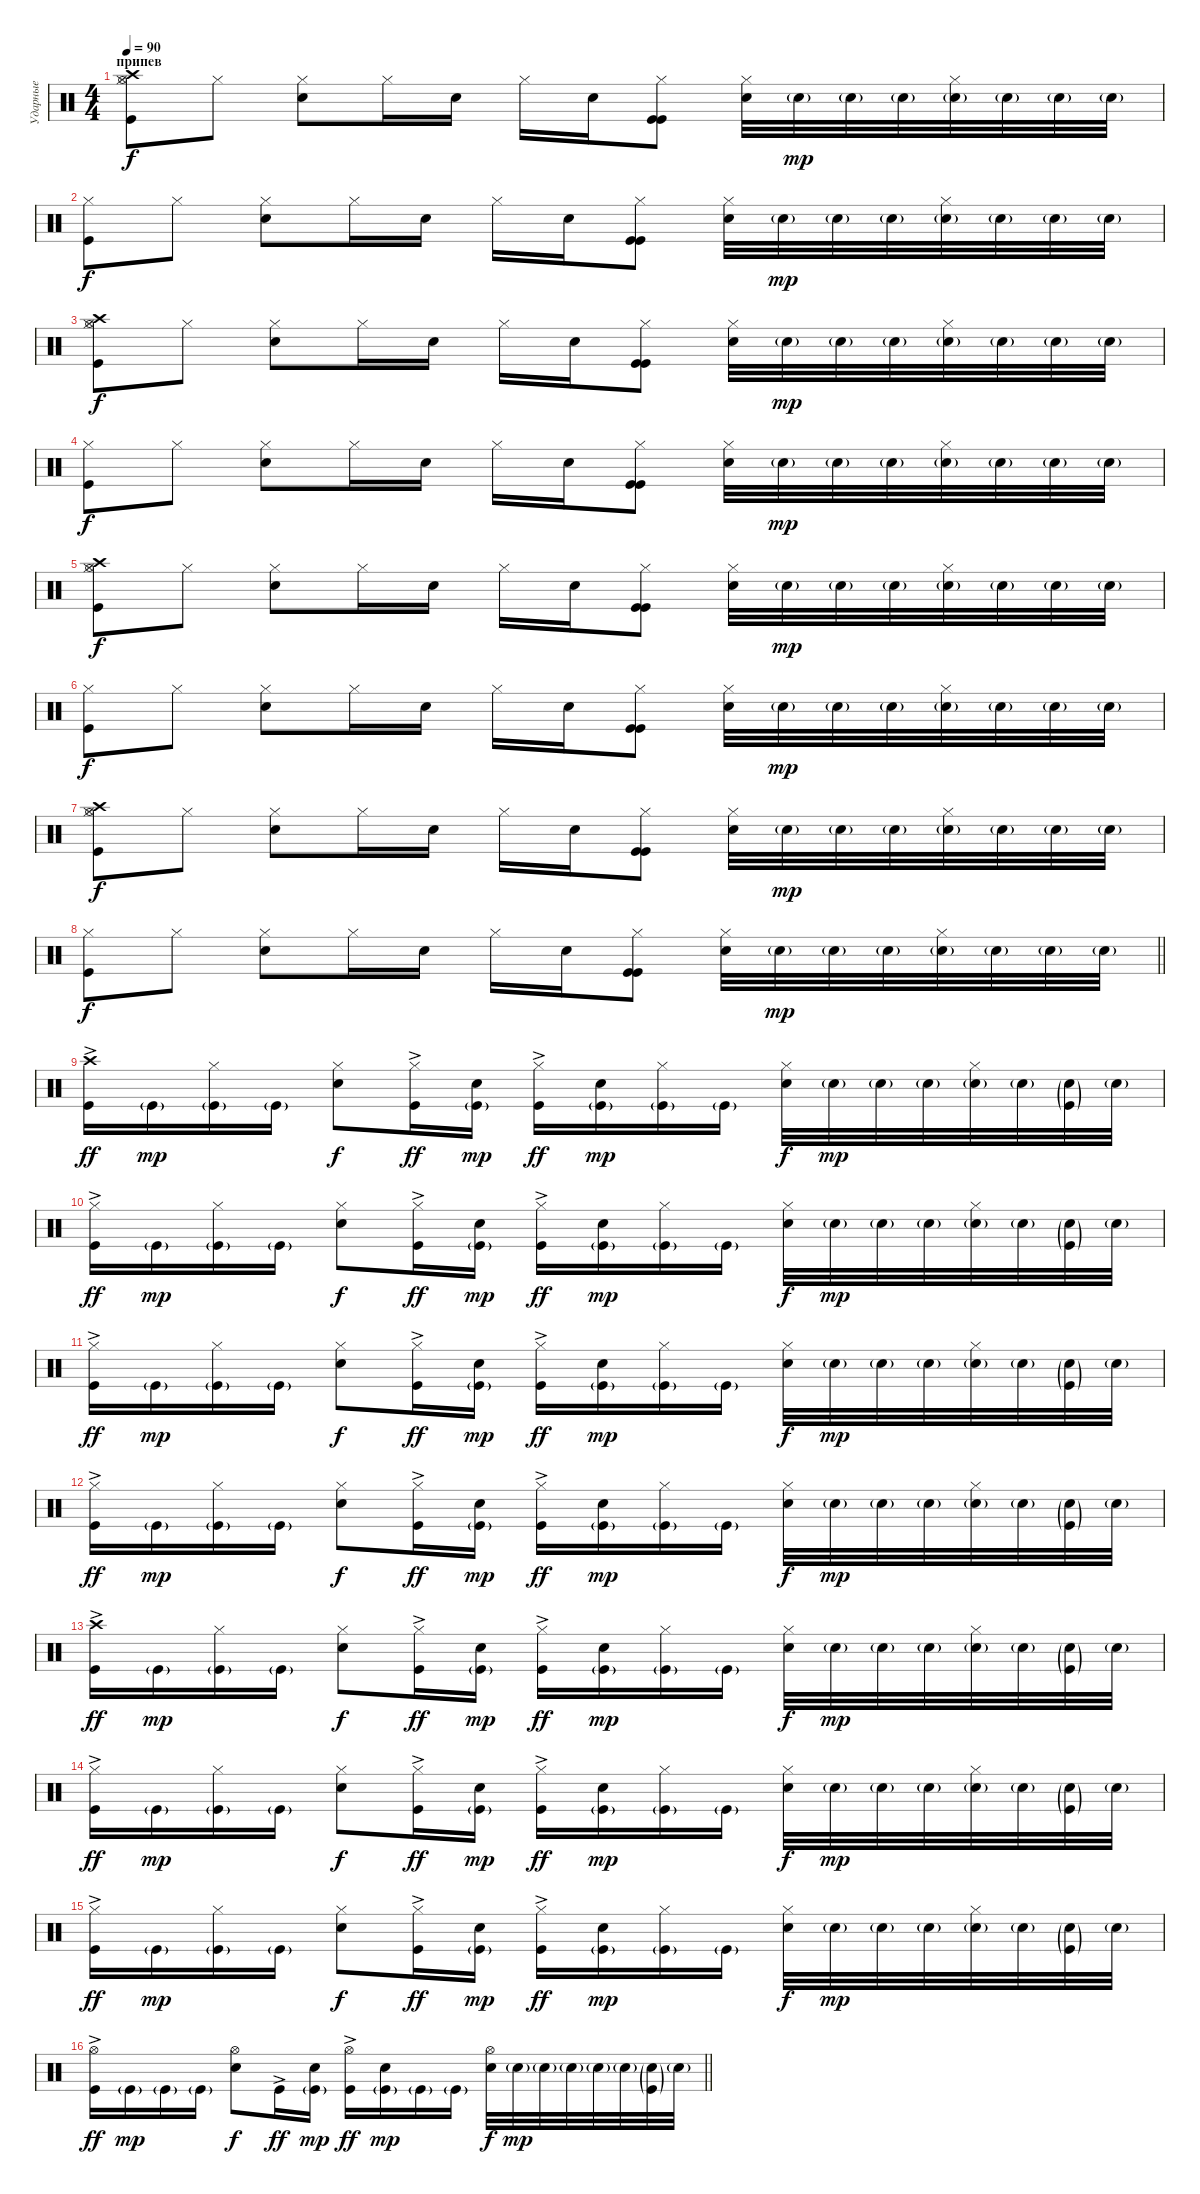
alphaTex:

\track ("Ударные" "Ударные") {instrument percussion}
\staff {score}
\articulation defaults
\ts (4 4)
\section ("" "припев")
\tempo 90
\clef neutral
\ks c
("Hi-Hat (closed)" "Kick (hit)" "Hi-Hat (open)" "Crash high (hit)").8{dy f volume 16} "Hi-Hat (closed)".8 ("Hi-Hat (closed)" "Electric Snare (hit)").8 "Hi-Hat (closed)".16 "Electric Snare (hit)".16 "Hi-Hat (closed)".16 "Electric Snare (hit)".16 ("Hi-Hat (closed)" "Kick (hit)" "Kick (hit)").8 ("Hi-Hat (closed)" "Electric Snare (hit)").32 "Snare (hit) 2"{g}.32{dy mp} "Snare (hit) 2"{g}.32 "Snare (hit) 2"{g}.32 ("Snare (hit) 2"{g} "Hi-Hat (closed)").32 "Snare (hit) 2"{g}.32 "Snare (hit) 2"{g}.32 "Snare (hit) 2"{g}.32 |
("Hi-Hat (closed)" "Kick (hit)").8{dy f} "Hi-Hat (closed)".8 ("Hi-Hat (closed)" "Electric Snare (hit)").8 "Hi-Hat (closed)".16 "Electric Snare (hit)".16 "Hi-Hat (closed)".16 "Electric Snare (hit)".16 ("Hi-Hat (closed)" "Kick (hit)" "Kick (hit)").8 ("Hi-Hat (closed)" "Electric Snare (hit)").32 "Snare (hit) 2"{g}.32{dy mp} "Snare (hit) 2"{g}.32 "Snare (hit) 2"{g}.32 ("Snare (hit) 2"{g} "Hi-Hat (closed)").32 "Snare (hit) 2"{g}.32 "Snare (hit) 2"{g}.32 "Snare (hit) 2"{g}.32 |
("Hi-Hat (closed)" "Kick (hit)" "Hi-Hat (open)" "Crash high (hit)").8{dy f} "Hi-Hat (closed)".8 ("Hi-Hat (closed)" "Electric Snare (hit)").8 "Hi-Hat (closed)".16 "Electric Snare (hit)".16 "Hi-Hat (closed)".16 "Electric Snare (hit)".16 ("Hi-Hat (closed)" "Kick (hit)" "Kick (hit)").8 ("Hi-Hat (closed)" "Electric Snare (hit)").32 "Snare (hit) 2"{g}.32{dy mp} "Snare (hit) 2"{g}.32 "Snare (hit) 2"{g}.32 ("Snare (hit) 2"{g} "Hi-Hat (closed)").32 "Snare (hit) 2"{g}.32 "Snare (hit) 2"{g}.32 "Snare (hit) 2"{g}.32 |
("Hi-Hat (closed)" "Kick (hit)").8{dy f} "Hi-Hat (closed)".8 ("Hi-Hat (closed)" "Electric Snare (hit)").8 "Hi-Hat (closed)".16 "Electric Snare (hit)".16 "Hi-Hat (closed)".16 "Electric Snare (hit)".16 ("Hi-Hat (closed)" "Kick (hit)" "Kick (hit)").8 ("Hi-Hat (closed)" "Electric Snare (hit)").32 "Snare (hit) 2"{g}.32{dy mp} "Snare (hit) 2"{g}.32 "Snare (hit) 2"{g}.32 ("Snare (hit) 2"{g} "Hi-Hat (closed)").32 "Snare (hit) 2"{g}.32 "Snare (hit) 2"{g}.32 "Snare (hit) 2"{g}.32 |
("Hi-Hat (closed)" "Kick (hit)" "Hi-Hat (open)" "Crash high (hit)").8{dy f volume 16} "Hi-Hat (closed)".8 ("Hi-Hat (closed)" "Electric Snare (hit)").8 "Hi-Hat (closed)".16 "Electric Snare (hit)".16 "Hi-Hat (closed)".16 "Electric Snare (hit)".16 ("Hi-Hat (closed)" "Kick (hit)" "Kick (hit)").8 ("Hi-Hat (closed)" "Electric Snare (hit)").32 "Snare (hit) 2"{g}.32{dy mp} "Snare (hit) 2"{g}.32 "Snare (hit) 2"{g}.32 ("Snare (hit) 2"{g} "Hi-Hat (closed)").32 "Snare (hit) 2"{g}.32 "Snare (hit) 2"{g}.32 "Snare (hit) 2"{g}.32 |
("Hi-Hat (closed)" "Kick (hit)").8{dy f} "Hi-Hat (closed)".8 ("Hi-Hat (closed)" "Electric Snare (hit)").8 "Hi-Hat (closed)".16 "Electric Snare (hit)".16 "Hi-Hat (closed)".16 "Electric Snare (hit)".16 ("Hi-Hat (closed)" "Kick (hit)" "Kick (hit)").8 ("Hi-Hat (closed)" "Electric Snare (hit)").32 "Snare (hit) 2"{g}.32{dy mp} "Snare (hit) 2"{g}.32 "Snare (hit) 2"{g}.32 ("Snare (hit) 2"{g} "Hi-Hat (closed)").32 "Snare (hit) 2"{g}.32 "Snare (hit) 2"{g}.32 "Snare (hit) 2"{g}.32 |
("Hi-Hat (closed)" "Kick (hit)" "Hi-Hat (open)" "Crash high (hit)").8{dy f volume 16} "Hi-Hat (closed)".8 ("Hi-Hat (closed)" "Electric Snare (hit)").8 "Hi-Hat (closed)".16 "Electric Snare (hit)".16 "Hi-Hat (closed)".16 "Electric Snare (hit)".16 ("Hi-Hat (closed)" "Kick (hit)" "Kick (hit)").8 ("Hi-Hat (closed)" "Electric Snare (hit)").32 "Snare (hit) 2"{g}.32{dy mp} "Snare (hit) 2"{g}.32 "Snare (hit) 2"{g}.32 ("Snare (hit) 2"{g} "Hi-Hat (closed)").32 "Snare (hit) 2"{g}.32 "Snare (hit) 2"{g}.32 "Snare (hit) 2"{g}.32 |
\barLineRight lightlight
("Hi-Hat (closed)" "Kick (hit)").8{dy f} "Hi-Hat (closed)".8 ("Hi-Hat (closed)" "Electric Snare (hit)").8 "Hi-Hat (closed)".16 "Electric Snare (hit)".16 "Hi-Hat (closed)".16 "Electric Snare (hit)".16 ("Hi-Hat (closed)" "Kick (hit)" "Kick (hit)").8 ("Hi-Hat (closed)" "Electric Snare (hit)").32 "Snare (hit) 2"{g}.32{dy mp} "Snare (hit) 2"{g}.32 "Snare (hit) 2"{g}.32 ("Snare (hit) 2"{g} "Hi-Hat (closed)").32 "Snare (hit) 2"{g}.32 "Snare (hit) 2"{g}.32 "Snare (hit) 2"{g}.32 |
("Kick (hit)"{ac} "Crash high (hit)").16{dy ff volume 16} "Kick (hit)"{g}.16{dy mp} ("Kick (hit)"{g} "Hi-Hat (closed)").16 "Kick (hit)"{g}.16 ("Electric Snare (hit)" "Hi-Hat (closed)").8{dy f} ("Kick (hit)"{ac} "Hi-Hat (closed)").16{dy ff} ("Kick (hit)"{g} "Electric Snare (hit)").16{dy mp} ("Kick (hit)"{ac} "Hi-Hat (closed)").16{dy ff} ("Kick (hit)"{g} "Electric Snare (hit)").16{dy mp} ("Kick (hit)"{g} "Hi-Hat (closed)").16 "Kick (hit)"{g}.16 ("Hi-Hat (closed)" "Electric Snare (hit)").32{dy f} "Snare (hit) 2"{g}.32{dy mp} "Snare (hit) 2"{g}.32 "Snare (hit) 2"{g}.32 ("Snare (hit) 2"{g} "Hi-Hat (closed)").32 "Snare (hit) 2"{g}.32 ("Snare (hit) 2"{g} "Kick (hit)"{g}).32 "Snare (hit) 2"{g}.32 |
("Kick (hit)"{ac} "Hi-Hat (closed)").16{dy ff} "Kick (hit)"{g}.16{dy mp} ("Kick (hit)"{g} "Hi-Hat (closed)").16 "Kick (hit)"{g}.16 ("Electric Snare (hit)" "Hi-Hat (closed)").8{dy f} ("Kick (hit)"{ac} "Hi-Hat (closed)").16{dy ff} ("Kick (hit)"{g} "Electric Snare (hit)").16{dy mp} ("Kick (hit)"{ac} "Hi-Hat (closed)").16{dy ff} ("Kick (hit)"{g} "Electric Snare (hit)").16{dy mp} ("Kick (hit)"{g} "Hi-Hat (closed)").16 "Kick (hit)"{g}.16 ("Hi-Hat (closed)" "Electric Snare (hit)").32{dy f} "Snare (hit) 2"{g}.32{dy mp} "Snare (hit) 2"{g}.32 "Snare (hit) 2"{g}.32 ("Snare (hit) 2"{g} "Hi-Hat (closed)").32 "Snare (hit) 2"{g}.32 ("Snare (hit) 2"{g} "Kick (hit)"{g}).32 "Snare (hit) 2"{g}.32 |
("Kick (hit)"{ac} "Hi-Hat (closed)").16{dy ff} "Kick (hit)"{g}.16{dy mp} ("Kick (hit)"{g} "Hi-Hat (closed)").16 "Kick (hit)"{g}.16 ("Electric Snare (hit)" "Hi-Hat (closed)").8{dy f} ("Kick (hit)"{ac} "Hi-Hat (closed)").16{dy ff} ("Kick (hit)"{g} "Electric Snare (hit)").16{dy mp} ("Kick (hit)"{ac} "Hi-Hat (closed)").16{dy ff} ("Kick (hit)"{g} "Electric Snare (hit)").16{dy mp} ("Kick (hit)"{g} "Hi-Hat (closed)").16 "Kick (hit)"{g}.16 ("Hi-Hat (closed)" "Electric Snare (hit)").32{dy f} "Snare (hit) 2"{g}.32{dy mp} "Snare (hit) 2"{g}.32 "Snare (hit) 2"{g}.32 ("Snare (hit) 2"{g} "Hi-Hat (closed)").32 "Snare (hit) 2"{g}.32 ("Snare (hit) 2"{g} "Kick (hit)"{g}).32 "Snare (hit) 2"{g}.32 |
("Kick (hit)"{ac} "Hi-Hat (closed)").16{dy ff} "Kick (hit)"{g}.16{dy mp} ("Kick (hit)"{g} "Hi-Hat (closed)").16 "Kick (hit)"{g}.16 ("Electric Snare (hit)" "Hi-Hat (closed)").8{dy f} ("Kick (hit)"{ac} "Hi-Hat (closed)").16{dy ff} ("Kick (hit)"{g} "Electric Snare (hit)").16{dy mp} ("Kick (hit)"{ac} "Hi-Hat (closed)").16{dy ff} ("Kick (hit)"{g} "Electric Snare (hit)").16{dy mp} ("Kick (hit)"{g} "Hi-Hat (closed)").16 "Kick (hit)"{g}.16 ("Hi-Hat (closed)" "Electric Snare (hit)").32{dy f} "Snare (hit) 2"{g}.32{dy mp} "Snare (hit) 2"{g}.32 "Snare (hit) 2"{g}.32 ("Snare (hit) 2"{g} "Hi-Hat (closed)").32 "Snare (hit) 2"{g}.32 ("Snare (hit) 2"{g} "Kick (hit)"{g}).32 "Snare (hit) 2"{g}.32 |
("Kick (hit)"{ac} "Crash high (hit)").16{dy ff volume 16} "Kick (hit)"{g}.16{dy mp} ("Kick (hit)"{g} "Hi-Hat (closed)").16 "Kick (hit)"{g}.16 ("Electric Snare (hit)" "Hi-Hat (closed)").8{dy f} ("Kick (hit)"{ac} "Hi-Hat (closed)").16{dy ff} ("Kick (hit)"{g} "Electric Snare (hit)").16{dy mp} ("Kick (hit)"{ac} "Hi-Hat (closed)").16{dy ff} ("Kick (hit)"{g} "Electric Snare (hit)").16{dy mp} ("Kick (hit)"{g} "Hi-Hat (closed)").16 "Kick (hit)"{g}.16 ("Hi-Hat (closed)" "Electric Snare (hit)").32{dy f} "Snare (hit) 2"{g}.32{dy mp} "Snare (hit) 2"{g}.32 "Snare (hit) 2"{g}.32 ("Snare (hit) 2"{g} "Hi-Hat (closed)").32 "Snare (hit) 2"{g}.32 ("Snare (hit) 2"{g} "Kick (hit)"{g}).32 "Snare (hit) 2"{g}.32 |
("Kick (hit)"{ac} "Hi-Hat (closed)").16{dy ff} "Kick (hit)"{g}.16{dy mp} ("Kick (hit)"{g} "Hi-Hat (closed)").16 "Kick (hit)"{g}.16 ("Electric Snare (hit)" "Hi-Hat (closed)").8{dy f} ("Kick (hit)"{ac} "Hi-Hat (closed)").16{dy ff} ("Kick (hit)"{g} "Electric Snare (hit)").16{dy mp} ("Kick (hit)"{ac} "Hi-Hat (closed)").16{dy ff} ("Kick (hit)"{g} "Electric Snare (hit)").16{dy mp} ("Kick (hit)"{g} "Hi-Hat (closed)").16 "Kick (hit)"{g}.16 ("Hi-Hat (closed)" "Electric Snare (hit)").32{dy f} "Snare (hit) 2"{g}.32{dy mp} "Snare (hit) 2"{g}.32 "Snare (hit) 2"{g}.32 ("Snare (hit) 2"{g} "Hi-Hat (closed)").32 "Snare (hit) 2"{g}.32 ("Snare (hit) 2"{g} "Kick (hit)"{g}).32 "Snare (hit) 2"{g}.32 |
("Kick (hit)"{ac} "Hi-Hat (closed)").16{dy ff} "Kick (hit)"{g}.16{dy mp} ("Kick (hit)"{g} "Hi-Hat (closed)").16 "Kick (hit)"{g}.16 ("Electric Snare (hit)" "Hi-Hat (closed)").8{dy f} ("Kick (hit)"{ac} "Hi-Hat (closed)").16{dy ff} ("Kick (hit)"{g} "Electric Snare (hit)").16{dy mp} ("Kick (hit)"{ac} "Hi-Hat (closed)").16{dy ff} ("Kick (hit)"{g} "Electric Snare (hit)").16{dy mp} ("Kick (hit)"{g} "Hi-Hat (closed)").16 "Kick (hit)"{g}.16 ("Hi-Hat (closed)" "Electric Snare (hit)").32{dy f} "Snare (hit) 2"{g}.32{dy mp} "Snare (hit) 2"{g}.32 "Snare (hit) 2"{g}.32 ("Snare (hit) 2"{g} "Hi-Hat (closed)").32 "Snare (hit) 2"{g}.32 ("Snare (hit) 2"{g} "Kick (hit)"{g}).32 "Snare (hit) 2"{g}.32 |
\barLineRight lightlight
("Kick (hit)"{ac} "Hi-Hat (open)").16{dy ff} "Kick (hit)"{g}.16{dy mp} "Kick (hit)"{g}.16 "Kick (hit)"{g}.16 ("Electric Snare (hit)" "Hi-Hat (open)").8{dy f} "Kick (hit)"{ac}.16{dy ff} ("Kick (hit)"{g} "Electric Snare (hit)").16{dy mp} ("Kick (hit)"{ac} "Hi-Hat (open)").16{dy ff} ("Kick (hit)"{g} "Electric Snare (hit)").16{dy mp} "Kick (hit)"{g}.16 "Kick (hit)"{g}.16 ("Hi-Hat (open)" "Electric Snare (hit)").32{dy f} "Snare (hit) 2"{g}.32{dy mp} "Snare (hit) 2"{g}.32 "Snare (hit) 2"{g}.32 "Snare (hit) 2"{g}.32 "Snare (hit) 2"{g}.32 ("Snare (hit) 2"{g} "Kick (hit)"{g}).32 "Snare (hit) 2"{g}.32
